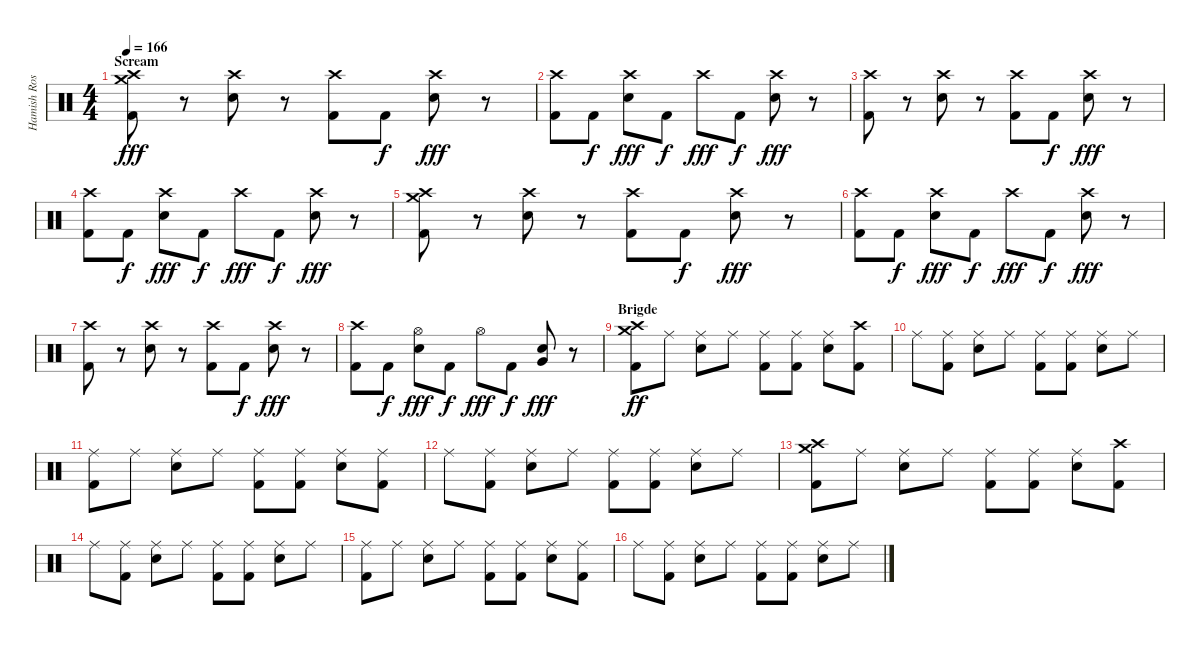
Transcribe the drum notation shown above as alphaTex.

\track ("Hamish Rosser" "Hamish Ros") {instrument percussion}
\staff {score}
\articulation defaults
\ts (4 4)
\section ("" "Scream ")
\tempo 166
\clef neutral
\ks c
("Crash high (hit)" "Crash medium (hit)" "Kick (hit) 2").8{dy fff} r.8 ("Crash high (hit)" "Electric Snare (hit)").8 r.8 ("Crash high (hit)" "Kick (hit) 2").8 "Kick (hit) 2".8{dy f} ("Crash high (hit)" "Electric Snare (hit)").8{dy fff} r.8 |
("Crash high (hit)" "Kick (hit) 2").8 "Kick (hit) 2".8{dy f} ("Crash high (hit)" "Electric Snare (hit)").8{dy fff} "Kick (hit) 2".8{dy f} "Crash high (hit)".8{dy fff} "Kick (hit) 2".8{dy f} ("Crash high (hit)" "Electric Snare (hit)").8{dy fff} r.8 |
("Crash high (hit)" "Kick (hit) 2").8 r.8 ("Crash high (hit)" "Electric Snare (hit)").8 r.8 ("Crash high (hit)" "Kick (hit) 2").8 "Kick (hit) 2".8{dy f} ("Crash high (hit)" "Electric Snare (hit)").8{dy fff} r.8 |
("Crash high (hit)" "Kick (hit) 2").8 "Kick (hit) 2".8{dy f} ("Crash high (hit)" "Electric Snare (hit)").8{dy fff} "Kick (hit) 2".8{dy f} "Crash high (hit)".8{dy fff} "Kick (hit) 2".8{dy f} ("Crash high (hit)" "Electric Snare (hit)").8{dy fff} r.8 |
("Crash high (hit)" "Crash medium (hit)" "Kick (hit) 2").8 r.8 ("Crash high (hit)" "Electric Snare (hit)").8 r.8 ("Crash high (hit)" "Kick (hit) 2").8 "Kick (hit) 2".8{dy f} ("Crash high (hit)" "Electric Snare (hit)").8{dy fff} r.8 |
("Crash high (hit)" "Kick (hit) 2").8 "Kick (hit) 2".8{dy f} ("Crash high (hit)" "Electric Snare (hit)").8{dy fff} "Kick (hit) 2".8{dy f} "Crash high (hit)".8{dy fff} "Kick (hit) 2".8{dy f} ("Crash high (hit)" "Electric Snare (hit)").8{dy fff} r.8 |
("Crash high (hit)" "Kick (hit) 2").8 r.8 ("Crash high (hit)" "Electric Snare (hit)").8 r.8 ("Crash high (hit)" "Kick (hit) 2").8 "Kick (hit) 2".8{dy f} ("Crash high (hit)" "Electric Snare (hit)").8{dy fff} r.8 |
("Crash high (hit)" "Kick (hit) 2").8 "Kick (hit) 2".8{dy f} ("Hi-Hat (open)" "Electric Snare (hit)").8{dy fff} "Kick (hit) 2".8{dy f} "Hi-Hat (open)".8{dy fff} "Kick (hit) 2".8{dy f} ("Electric Snare (hit)" "Very Low Tom (hit)").8{dy fff} r.8 |
\section ("" "Brigde")
("Crash medium (hit)" "Crash high (hit)" "Kick (hit) 2").8{dy ff} "Ride (middle)".8 ("Ride (middle)" "Electric Snare (hit)").8 "Ride (middle)".8 ("Ride (middle)" "Kick (hit) 2").8 ("Ride (middle)" "Kick (hit) 2").8 ("Ride (middle)" "Electric Snare (hit)").8 ("Crash high (hit)" "Kick (hit) 2").8 |
"Ride (middle)".8 ("Ride (middle)" "Kick (hit) 2").8 ("Ride (middle)" "Electric Snare (hit)").8 "Ride (middle)".8 ("Ride (middle)" "Kick (hit) 2").8 ("Ride (middle)" "Kick (hit) 2").8 ("Ride (middle)" "Electric Snare (hit)").8 "Ride (middle)".8 |
("Ride (middle)" "Kick (hit) 2").8 "Ride (middle)".8 ("Ride (middle)" "Electric Snare (hit)").8 "Ride (middle)".8 ("Ride (middle)" "Kick (hit) 2").8 ("Ride (middle)" "Kick (hit) 2").8 ("Ride (middle)" "Electric Snare (hit)").8 ("Ride (middle)" "Kick (hit) 2").8 |
"Ride (middle)".8 ("Ride (middle)" "Kick (hit) 2").8 ("Ride (middle)" "Electric Snare (hit)").8 "Ride (middle)".8 ("Ride (middle)" "Kick (hit) 2").8 ("Ride (middle)" "Kick (hit) 2").8 ("Ride (middle)" "Electric Snare (hit)").8 "Ride (middle)".8 |
("Crash medium (hit)" "Crash high (hit)" "Kick (hit) 2").8 "Ride (middle)".8 ("Ride (middle)" "Electric Snare (hit)").8 "Ride (middle)".8 ("Ride (middle)" "Kick (hit) 2").8 ("Ride (middle)" "Kick (hit) 2").8 ("Ride (middle)" "Electric Snare (hit)").8 ("Crash high (hit)" "Kick (hit) 2").8 |
"Ride (middle)".8 ("Ride (middle)" "Kick (hit) 2").8 ("Ride (middle)" "Electric Snare (hit)").8 "Ride (middle)".8 ("Ride (middle)" "Kick (hit) 2").8 ("Ride (middle)" "Kick (hit) 2").8 ("Ride (middle)" "Electric Snare (hit)").8 "Ride (middle)".8 |
("Ride (middle)" "Kick (hit) 2").8 "Ride (middle)".8 ("Ride (middle)" "Electric Snare (hit)").8 "Ride (middle)".8 ("Ride (middle)" "Kick (hit) 2").8 ("Ride (middle)" "Kick (hit) 2").8 ("Ride (middle)" "Electric Snare (hit)").8 ("Ride (middle)" "Kick (hit) 2").8 |
"Ride (middle)".8 ("Ride (middle)" "Kick (hit) 2").8 ("Ride (middle)" "Electric Snare (hit)").8 "Ride (middle)".8 ("Ride (middle)" "Kick (hit) 2").8 ("Ride (middle)" "Kick (hit) 2").8 ("Ride (middle)" "Electric Snare (hit)").8 "Ride (middle)".8
